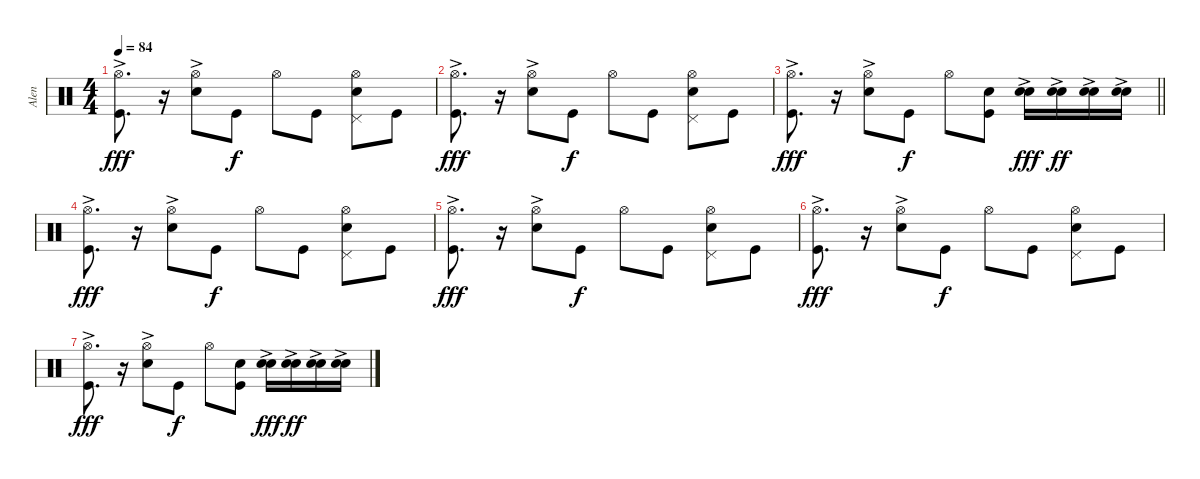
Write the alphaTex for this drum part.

\track ("Alen" "Alen") {instrument percussion}
\staff {score}
\articulation defaults
\ts (4 4)
\tempo 84
\clef neutral
\ks c
("Hi-Hat (open)"{ac} "Kick (hit)").8{d dy fff} r.16 ("Hi-Hat (open)" "Snare (hit) 2"{ac}).8 "Kick (hit)".8{dy f} "Hi-Hat (open)".8 "Kick (hit)".8 ("Pedal Hi-Hat (hit)" "Snare (hit) 2" "Hi-Hat (open)").8 "Kick (hit)".8 |
("Hi-Hat (open)"{ac} "Kick (hit)").8{d dy fff} r.16 ("Hi-Hat (open)" "Snare (hit) 2"{ac}).8 "Kick (hit)".8{dy f} "Hi-Hat (open)".8 "Kick (hit)".8 ("Pedal Hi-Hat (hit)" "Snare (hit) 2" "Hi-Hat (open)").8 "Kick (hit)".8 |
\barLineRight lightlight
("Hi-Hat (open)"{ac} "Kick (hit)").8{d dy fff} r.16 ("Hi-Hat (open)" "Snare (hit) 2"{ac}).8 "Kick (hit)".8{dy f} "Hi-Hat (open)".8 ("Electric Snare (hit)" "Kick (hit)").8 ("Snare (hit) 2"{ac} "Electric Snare (hit)"{ac}).16{dy fff} ("Snare (hit) 2"{ac} "Electric Snare (hit)").16{dy ff} ("Snare (hit) 2"{ac} "Electric Snare (hit)").16 ("Snare (hit) 2"{ac} "Electric Snare (hit)").16 |
("Hi-Hat (open)"{ac} "Kick (hit)").8{d dy fff} r.16 ("Hi-Hat (open)" "Snare (hit) 2"{ac}).8 "Kick (hit)".8{dy f} "Hi-Hat (open)".8 "Kick (hit)".8 ("Pedal Hi-Hat (hit)" "Snare (hit) 2" "Hi-Hat (open)").8 "Kick (hit)".8 |
("Hi-Hat (open)"{ac} "Kick (hit)").8{d dy fff} r.16 ("Hi-Hat (open)" "Snare (hit) 2"{ac}).8 "Kick (hit)".8{dy f} "Hi-Hat (open)".8 "Kick (hit)".8 ("Pedal Hi-Hat (hit)" "Snare (hit) 2" "Hi-Hat (open)").8 "Kick (hit)".8 |
("Hi-Hat (open)"{ac} "Kick (hit)").8{d dy fff} r.16 ("Hi-Hat (open)" "Snare (hit) 2"{ac}).8 "Kick (hit)".8{dy f} "Hi-Hat (open)".8 "Kick (hit)".8 ("Pedal Hi-Hat (hit)" "Snare (hit) 2" "Hi-Hat (open)").8 "Kick (hit)".8 |
("Hi-Hat (open)"{ac} "Kick (hit)").8{d dy fff} r.16 ("Hi-Hat (open)" "Snare (hit) 2"{ac}).8 "Kick (hit)".8{dy f} "Hi-Hat (open)".8 ("Electric Snare (hit)" "Kick (hit)").8 ("Snare (hit) 2"{ac} "Electric Snare (hit)"{ac}).16{dy fff} ("Snare (hit) 2"{ac} "Electric Snare (hit)").16{dy ff} ("Snare (hit) 2"{ac} "Electric Snare (hit)").16 ("Snare (hit) 2"{ac} "Electric Snare (hit)").16
